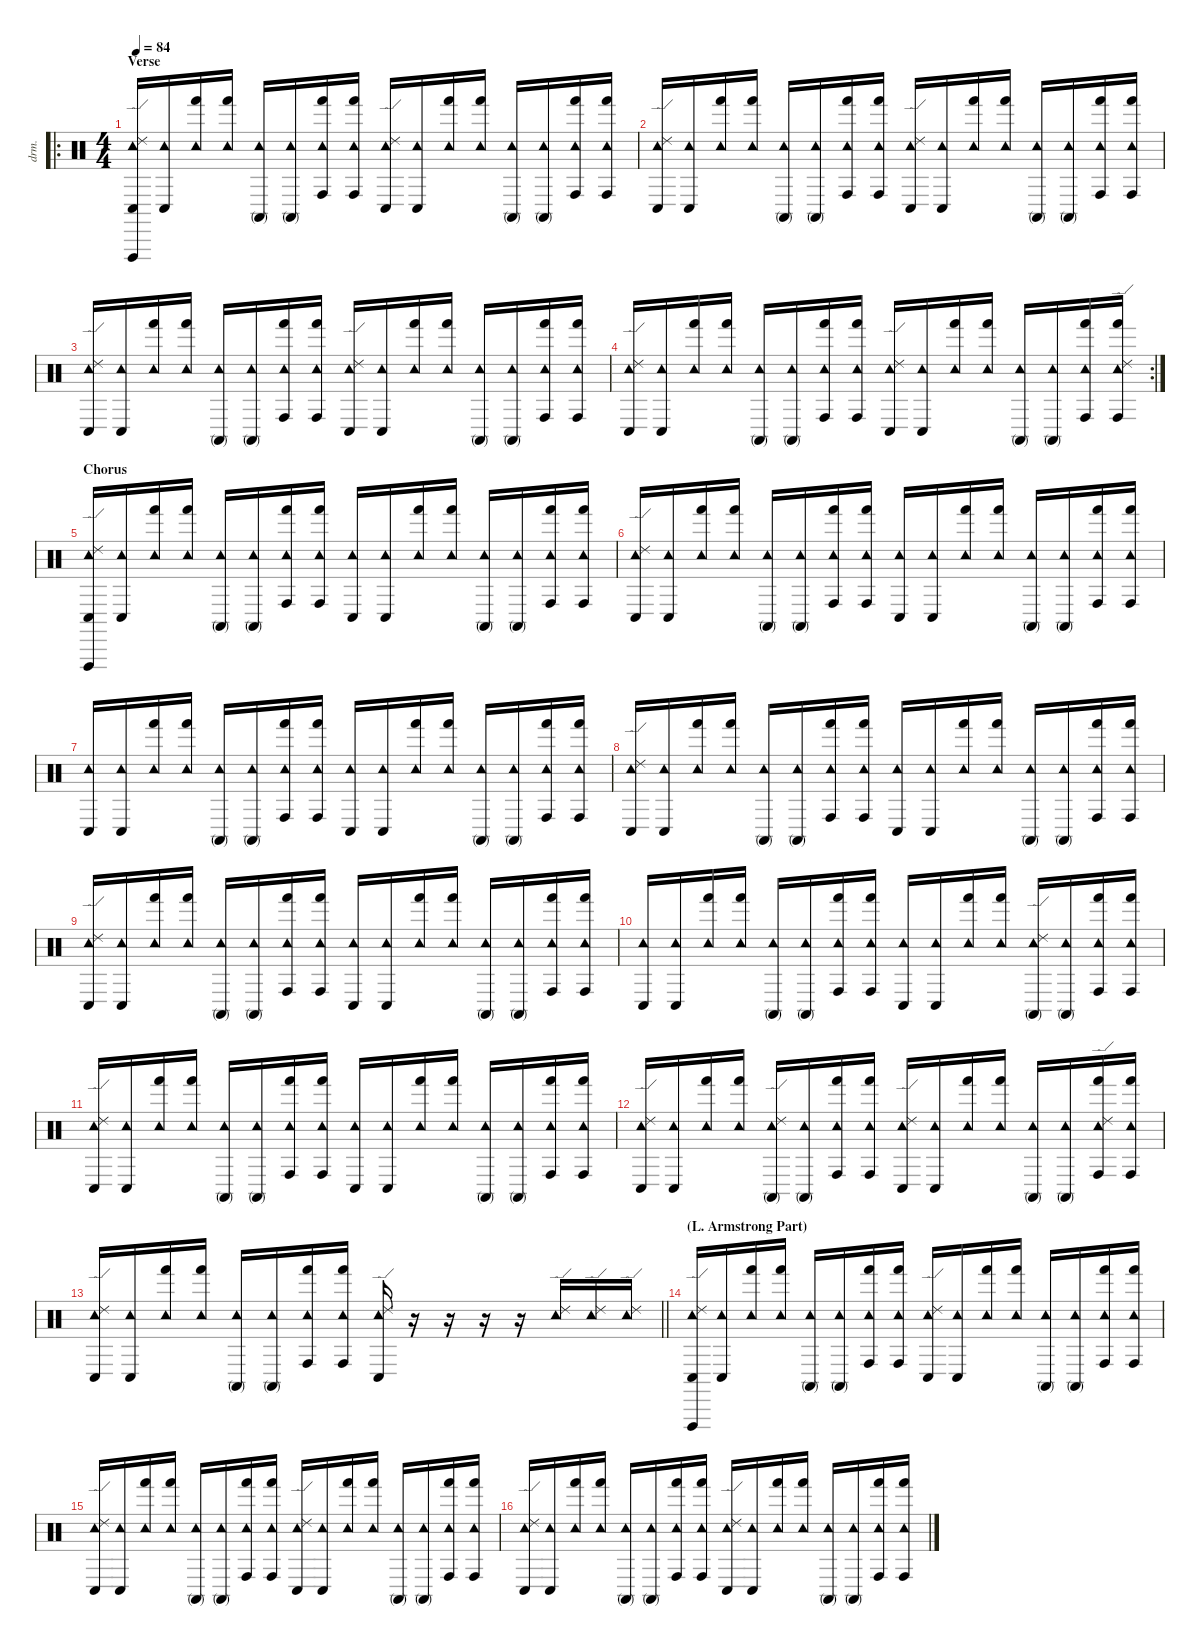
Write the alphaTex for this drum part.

\defaultSystemsLayout 4
\hideDynamics
\bracketExtendMode nobrackets
\otherSystemsTrackNameOrientation horizontal
\track ("Conga + Tambourine" "drm.") {instrument percussion}
\staff {score}
\articulation defaults
\ro
\ts (4 4)
\section ("" "Verse")
\tempo 84
\clef neutral
\ks c
("Conga low (hit)" "Vibraslap (hit)" "Tambourine (hit)" "Ride (edge) 2").16{dy f beam Up} ("Conga low (hit)" "Tambourine (hit)").16{beam Up} ("Hand (hit)" "Tambourine (hit)").16{beam Up} ("Hand (hit)" "Tambourine (hit)").16{beam Up} ("Conga high (mute)" "Tambourine (hit)").16{beam Up} ("Conga high (mute)" "Tambourine (hit)").16{beam Up} ("Conga high (hit)" "Hand (hit)" "Tambourine (hit)").16{beam Up} ("Conga high (hit)" "Hand (hit)" "Tambourine (hit)").16{beam Up} ("Conga low (hit)" "Tambourine (hit)" "Ride (edge) 2").16{beam Up} ("Conga low (hit)" "Tambourine (hit)").16{beam Up} ("Hand (hit)" "Tambourine (hit)").16{beam Up} ("Hand (hit)" "Tambourine (hit)").16{beam Up} ("Conga high (mute)" "Tambourine (hit)").16{beam Up} ("Conga high (mute)" "Tambourine (hit)").16{beam Up} ("Conga high (hit)" "Hand (hit)" "Tambourine (hit)").16{beam Up} ("Conga high (hit)" "Hand (hit)" "Tambourine (hit)").16{beam Up} |
("Conga low (hit)" "Tambourine (hit)" "Ride (edge) 2").16{beam Up} ("Conga low (hit)" "Tambourine (hit)").16{beam Up} ("Hand (hit)" "Tambourine (hit)").16{beam Up} ("Hand (hit)" "Tambourine (hit)").16{beam Up} ("Conga high (mute)" "Tambourine (hit)").16{beam Up} ("Conga high (mute)" "Tambourine (hit)").16{beam Up} ("Conga high (hit)" "Hand (hit)" "Tambourine (hit)").16{beam Up} ("Conga high (hit)" "Hand (hit)" "Tambourine (hit)").16{beam Up} ("Conga low (hit)" "Tambourine (hit)" "Ride (edge) 2").16{beam Up} ("Conga low (hit)" "Tambourine (hit)").16{beam Up} ("Hand (hit)" "Tambourine (hit)").16{beam Up} ("Hand (hit)" "Tambourine (hit)").16{beam Up} ("Conga high (mute)" "Tambourine (hit)").16{beam Up} ("Conga high (mute)" "Tambourine (hit)").16{beam Up} ("Conga high (hit)" "Hand (hit)" "Tambourine (hit)").16{beam Up} ("Conga high (hit)" "Hand (hit)" "Tambourine (hit)").16{beam Up} |
("Conga low (hit)" "Tambourine (hit)" "Ride (edge) 2").16{beam Up} ("Conga low (hit)" "Tambourine (hit)").16{beam Up} ("Hand (hit)" "Tambourine (hit)").16{beam Up} ("Hand (hit)" "Tambourine (hit)").16{beam Up} ("Conga high (mute)" "Tambourine (hit)").16{beam Up} ("Conga high (mute)" "Tambourine (hit)").16{beam Up} ("Conga high (hit)" "Hand (hit)" "Tambourine (hit)").16{beam Up} ("Conga high (hit)" "Hand (hit)" "Tambourine (hit)").16{beam Up} ("Conga low (hit)" "Tambourine (hit)" "Ride (edge) 2").16{beam Up} ("Conga low (hit)" "Tambourine (hit)").16{beam Up} ("Hand (hit)" "Tambourine (hit)").16{beam Up} ("Hand (hit)" "Tambourine (hit)").16{beam Up} ("Conga high (mute)" "Tambourine (hit)").16{beam Up} ("Conga high (mute)" "Tambourine (hit)").16{beam Up} ("Conga high (hit)" "Hand (hit)" "Tambourine (hit)").16{beam Up} ("Conga high (hit)" "Hand (hit)" "Tambourine (hit)").16{beam Up} |
\rc 2
("Conga low (hit)" "Tambourine (hit)" "Ride (edge) 2").16{beam Up} ("Conga low (hit)" "Tambourine (hit)").16{beam Up} ("Hand (hit)" "Tambourine (hit)").16{beam Up} ("Hand (hit)" "Tambourine (hit)").16{beam Up} ("Conga high (mute)" "Tambourine (hit)").16{beam Up} ("Conga high (mute)" "Tambourine (hit)").16{beam Up} ("Conga high (hit)" "Hand (hit)" "Tambourine (hit)").16{beam Up} ("Conga high (hit)" "Hand (hit)" "Tambourine (hit)").16{beam Up} ("Conga low (hit)" "Tambourine (hit)" "Ride (edge) 2").16{beam Up} ("Conga low (hit)" "Tambourine (hit)").16{beam Up} ("Hand (hit)" "Tambourine (hit)").16{beam Up} ("Hand (hit)" "Tambourine (hit)").16{beam Up} ("Conga high (mute)" "Tambourine (hit)").16{beam Up} ("Conga high (mute)" "Tambourine (hit)").16{beam Up} ("Conga high (hit)" "Hand (hit)" "Tambourine (hit)").16{beam Up} ("Conga high (hit)" "Hand (hit)" "Tambourine (hit)" "Ride (edge) 2").16{beam Up} |
\section ("" "Chorus")
("Conga low (hit)" "Vibraslap (hit)" "Tambourine (hit)" "Ride (edge) 2").16{beam Up} ("Conga low (hit)" "Tambourine (hit)").16{beam Up} ("Hand (hit)" "Tambourine (hit)").16{beam Up} ("Hand (hit)" "Tambourine (hit)").16{beam Up} ("Conga high (mute)" "Tambourine (hit)").16{beam Up} ("Conga high (mute)" "Tambourine (hit)").16{beam Up} ("Conga high (hit)" "Hand (hit)" "Tambourine (hit)").16{beam Up} ("Conga high (hit)" "Hand (hit)" "Tambourine (hit)").16{beam Up} ("Conga low (hit)" "Tambourine (hit)").16{beam Up} ("Conga low (hit)" "Tambourine (hit)").16{beam Up} ("Hand (hit)" "Tambourine (hit)").16{beam Up} ("Hand (hit)" "Tambourine (hit)").16{beam Up} ("Conga high (mute)" "Tambourine (hit)").16{beam Up} ("Conga high (mute)" "Tambourine (hit)").16{beam Up} ("Conga high (hit)" "Hand (hit)" "Tambourine (hit)").16{beam Up} ("Conga high (hit)" "Hand (hit)" "Tambourine (hit)").16{beam Up} |
("Conga low (hit)" "Tambourine (hit)" "Ride (edge) 2").16{beam Up} ("Conga low (hit)" "Tambourine (hit)").16{beam Up} ("Hand (hit)" "Tambourine (hit)").16{beam Up} ("Hand (hit)" "Tambourine (hit)").16{beam Up} ("Conga high (mute)" "Tambourine (hit)").16{beam Up} ("Conga high (mute)" "Tambourine (hit)").16{beam Up} ("Conga high (hit)" "Hand (hit)" "Tambourine (hit)").16{beam Up} ("Conga high (hit)" "Hand (hit)" "Tambourine (hit)").16{beam Up} ("Conga low (hit)" "Tambourine (hit)").16{beam Up} ("Conga low (hit)" "Tambourine (hit)").16{beam Up} ("Hand (hit)" "Tambourine (hit)").16{beam Up} ("Hand (hit)" "Tambourine (hit)").16{beam Up} ("Conga high (mute)" "Tambourine (hit)").16{beam Up} ("Conga high (mute)" "Tambourine (hit)").16{beam Up} ("Conga high (hit)" "Hand (hit)" "Tambourine (hit)").16{beam Up} ("Conga high (hit)" "Hand (hit)" "Tambourine (hit)").16{beam Up} |
("Conga low (hit)" "Tambourine (hit)").16{beam Up} ("Conga low (hit)" "Tambourine (hit)").16{beam Up} ("Hand (hit)" "Tambourine (hit)").16{beam Up} ("Hand (hit)" "Tambourine (hit)").16{beam Up} ("Conga high (mute)" "Tambourine (hit)").16{beam Up} ("Conga high (mute)" "Tambourine (hit)").16{beam Up} ("Conga high (hit)" "Hand (hit)" "Tambourine (hit)").16{beam Up} ("Conga high (hit)" "Hand (hit)" "Tambourine (hit)").16{beam Up} ("Conga low (hit)" "Tambourine (hit)").16{beam Up} ("Conga low (hit)" "Tambourine (hit)").16{beam Up} ("Hand (hit)" "Tambourine (hit)").16{beam Up} ("Hand (hit)" "Tambourine (hit)").16{beam Up} ("Conga high (mute)" "Tambourine (hit)").16{beam Up} ("Conga high (mute)" "Tambourine (hit)").16{beam Up} ("Conga high (hit)" "Hand (hit)" "Tambourine (hit)").16{beam Up} ("Conga high (hit)" "Hand (hit)" "Tambourine (hit)").16{beam Up} |
("Conga low (hit)" "Tambourine (hit)" "Ride (edge) 2").16{beam Up} ("Conga low (hit)" "Tambourine (hit)").16{beam Up} ("Hand (hit)" "Tambourine (hit)").16{beam Up} ("Hand (hit)" "Tambourine (hit)").16{beam Up} ("Conga high (mute)" "Tambourine (hit)").16{beam Up} ("Conga high (mute)" "Tambourine (hit)").16{beam Up} ("Conga high (hit)" "Hand (hit)" "Tambourine (hit)").16{beam Up} ("Conga high (hit)" "Hand (hit)" "Tambourine (hit)").16{beam Up} ("Conga low (hit)" "Tambourine (hit)").16{beam Up} ("Conga low (hit)" "Tambourine (hit)").16{beam Up} ("Hand (hit)" "Tambourine (hit)").16{beam Up} ("Hand (hit)" "Tambourine (hit)").16{beam Up} ("Conga high (mute)" "Tambourine (hit)").16{beam Up} ("Conga high (mute)" "Tambourine (hit)").16{beam Up} ("Conga high (hit)" "Hand (hit)" "Tambourine (hit)").16{beam Up} ("Conga high (hit)" "Hand (hit)" "Tambourine (hit)").16{beam Up} |
("Conga low (hit)" "Tambourine (hit)" "Ride (edge) 2").16{beam Up} ("Conga low (hit)" "Tambourine (hit)").16{beam Up} ("Hand (hit)" "Tambourine (hit)").16{beam Up} ("Hand (hit)" "Tambourine (hit)").16{beam Up} ("Conga high (mute)" "Tambourine (hit)").16{beam Up} ("Conga high (mute)" "Tambourine (hit)").16{beam Up} ("Conga high (hit)" "Hand (hit)" "Tambourine (hit)").16{beam Up} ("Conga high (hit)" "Hand (hit)" "Tambourine (hit)").16{beam Up} ("Conga low (hit)" "Tambourine (hit)").16{beam Up} ("Conga low (hit)" "Tambourine (hit)").16{beam Up} ("Hand (hit)" "Tambourine (hit)").16{beam Up} ("Hand (hit)" "Tambourine (hit)").16{beam Up} ("Conga high (mute)" "Tambourine (hit)").16{beam Up} ("Conga high (mute)" "Tambourine (hit)").16{beam Up} ("Conga high (hit)" "Hand (hit)" "Tambourine (hit)").16{beam Up} ("Conga high (hit)" "Hand (hit)" "Tambourine (hit)").16{beam Up} |
("Conga low (hit)" "Tambourine (hit)").16{beam Up} ("Conga low (hit)" "Tambourine (hit)").16{beam Up} ("Hand (hit)" "Tambourine (hit)").16{beam Up} ("Hand (hit)" "Tambourine (hit)").16{beam Up} ("Conga high (mute)" "Tambourine (hit)").16{beam Up} ("Conga high (mute)" "Tambourine (hit)").16{beam Up} ("Conga high (hit)" "Hand (hit)" "Tambourine (hit)").16{beam Up} ("Conga high (hit)" "Hand (hit)" "Tambourine (hit)").16{beam Up} ("Conga low (hit)" "Tambourine (hit)").16{beam Up} ("Conga low (hit)" "Tambourine (hit)").16{beam Up} ("Hand (hit)" "Tambourine (hit)").16{beam Up} ("Hand (hit)" "Tambourine (hit)").16{beam Up} ("Conga high (mute)" "Tambourine (hit)" "Ride (edge) 2").16{beam Up} ("Conga high (mute)" "Tambourine (hit)").16{beam Up} ("Conga high (hit)" "Hand (hit)" "Tambourine (hit)").16{beam Up} ("Conga high (hit)" "Hand (hit)" "Tambourine (hit)").16{beam Up} |
("Conga low (hit)" "Tambourine (hit)" "Ride (edge) 2").16{beam Up} ("Conga low (hit)" "Tambourine (hit)").16{beam Up} ("Hand (hit)" "Tambourine (hit)").16{beam Up} ("Hand (hit)" "Tambourine (hit)").16{beam Up} ("Conga high (mute)" "Tambourine (hit)").16{beam Up} ("Conga high (mute)" "Tambourine (hit)").16{beam Up} ("Conga high (hit)" "Hand (hit)" "Tambourine (hit)").16{beam Up} ("Conga high (hit)" "Hand (hit)" "Tambourine (hit)").16{beam Up} ("Conga low (hit)" "Tambourine (hit)").16{beam Up} ("Conga low (hit)" "Tambourine (hit)").16{beam Up} ("Hand (hit)" "Tambourine (hit)").16{beam Up} ("Hand (hit)" "Tambourine (hit)").16{beam Up} ("Conga high (mute)" "Tambourine (hit)").16{beam Up} ("Conga high (mute)" "Tambourine (hit)").16{beam Up} ("Conga high (hit)" "Hand (hit)" "Tambourine (hit)").16{beam Up} ("Conga high (hit)" "Hand (hit)" "Tambourine (hit)").16{beam Up} |
("Conga low (hit)" "Tambourine (hit)" "Ride (edge) 2").16{beam Up} ("Conga low (hit)" "Tambourine (hit)").16{beam Up} ("Hand (hit)" "Tambourine (hit)").16{beam Up} ("Hand (hit)" "Tambourine (hit)").16{beam Up} ("Conga high (mute)" "Tambourine (hit)" "Ride (edge) 2").16{beam Up} ("Conga high (mute)" "Tambourine (hit)").16{beam Up} ("Conga high (hit)" "Hand (hit)" "Tambourine (hit)").16{beam Up} ("Conga high (hit)" "Hand (hit)" "Tambourine (hit)").16{beam Up} ("Conga low (hit)" "Tambourine (hit)" "Ride (edge) 2").16{beam Up} ("Conga low (hit)" "Tambourine (hit)").16{beam Up} ("Hand (hit)" "Tambourine (hit)").16{beam Up} ("Hand (hit)" "Tambourine (hit)").16{beam Up} ("Conga high (mute)" "Tambourine (hit)").16{beam Up} ("Conga high (mute)" "Tambourine (hit)").16{beam Up} ("Conga high (hit)" "Hand (hit)" "Tambourine (hit)" "Ride (edge) 2").16{beam Up} ("Conga high (hit)" "Hand (hit)" "Tambourine (hit)").16{beam Up} |
\barLineRight lightlight
("Conga low (hit)" "Tambourine (hit)" "Ride (edge) 2").16{beam Up} ("Conga low (hit)" "Tambourine (hit)").16{beam Up} ("Hand (hit)" "Tambourine (hit)").16{beam Up} ("Hand (hit)" "Tambourine (hit)").16{beam Up} ("Conga high (mute)" "Tambourine (hit)").16{beam Up} ("Conga high (mute)" "Tambourine (hit)").16{beam Up} ("Conga high (hit)" "Hand (hit)" "Tambourine (hit)").16{beam Up} ("Conga high (hit)" "Hand (hit)" "Tambourine (hit)").16{beam Up} ("Conga low (hit)" "Tambourine (hit)" "Ride (edge) 2").16{beam Up} r.16{beam Up} r.16{beam Up} r.16{beam Up} r.16{beam Up} ("Tambourine (hit)" "Ride (edge) 2").16{dy mp beam Down} ("Tambourine (hit)" "Ride (edge) 2").16{dy mf beam Down} ("Tambourine (hit)" "Ride (edge) 2").16{dy f beam Down} |
\section ("" "(L. Armstrong Part)")
("Conga low (hit)" "Vibraslap (hit)" "Tambourine (hit)" "Ride (edge) 2").16{beam Up} ("Conga low (hit)" "Tambourine (hit)").16{beam Up} ("Hand (hit)" "Tambourine (hit)").16{beam Up} ("Hand (hit)" "Tambourine (hit)").16{beam Up} ("Conga high (mute)" "Tambourine (hit)").16{beam Up} ("Conga high (mute)" "Tambourine (hit)").16{beam Up} ("Conga high (hit)" "Hand (hit)" "Tambourine (hit)").16{beam Up} ("Conga high (hit)" "Hand (hit)" "Tambourine (hit)").16{beam Up} ("Conga low (hit)" "Tambourine (hit)" "Ride (edge) 2").16{beam Up} ("Conga low (hit)" "Tambourine (hit)").16{beam Up} ("Hand (hit)" "Tambourine (hit)").16{beam Up} ("Hand (hit)" "Tambourine (hit)").16{beam Up} ("Conga high (mute)" "Tambourine (hit)").16{beam Up} ("Conga high (mute)" "Tambourine (hit)").16{beam Up} ("Conga high (hit)" "Hand (hit)" "Tambourine (hit)").16{beam Up} ("Conga high (hit)" "Hand (hit)" "Tambourine (hit)").16{beam Up} |
("Conga low (hit)" "Tambourine (hit)" "Ride (edge) 2").16{beam Up} ("Conga low (hit)" "Tambourine (hit)").16{beam Up} ("Hand (hit)" "Tambourine (hit)").16{beam Up} ("Hand (hit)" "Tambourine (hit)").16{beam Up} ("Conga high (mute)" "Tambourine (hit)").16{beam Up} ("Conga high (mute)" "Tambourine (hit)").16{beam Up} ("Conga high (hit)" "Hand (hit)" "Tambourine (hit)").16{beam Up} ("Conga high (hit)" "Hand (hit)" "Tambourine (hit)").16{beam Up} ("Conga low (hit)" "Tambourine (hit)" "Ride (edge) 2").16{beam Up} ("Conga low (hit)" "Tambourine (hit)").16{beam Up} ("Hand (hit)" "Tambourine (hit)").16{beam Up} ("Hand (hit)" "Tambourine (hit)").16{beam Up} ("Conga high (mute)" "Tambourine (hit)").16{beam Up} ("Conga high (mute)" "Tambourine (hit)").16{beam Up} ("Conga high (hit)" "Hand (hit)" "Tambourine (hit)").16{beam Up} ("Conga high (hit)" "Hand (hit)" "Tambourine (hit)").16{beam Up} |
("Conga low (hit)" "Tambourine (hit)" "Ride (edge) 2").16{beam Up} ("Conga low (hit)" "Tambourine (hit)").16{beam Up} ("Hand (hit)" "Tambourine (hit)").16{beam Up} ("Hand (hit)" "Tambourine (hit)").16{beam Up} ("Conga high (mute)" "Tambourine (hit)").16{beam Up} ("Conga high (mute)" "Tambourine (hit)").16{beam Up} ("Conga high (hit)" "Hand (hit)" "Tambourine (hit)").16{beam Up} ("Conga high (hit)" "Hand (hit)" "Tambourine (hit)").16{beam Up} ("Conga low (hit)" "Tambourine (hit)" "Ride (edge) 2").16{beam Up} ("Conga low (hit)" "Tambourine (hit)").16{beam Up} ("Hand (hit)" "Tambourine (hit)").16{beam Up} ("Hand (hit)" "Tambourine (hit)").16{beam Up} ("Conga high (mute)" "Tambourine (hit)").16{beam Up} ("Conga high (mute)" "Tambourine (hit)").16{beam Up} ("Conga high (hit)" "Hand (hit)" "Tambourine (hit)").16{beam Up} ("Conga high (hit)" "Hand (hit)" "Tambourine (hit)").16{beam Up}
